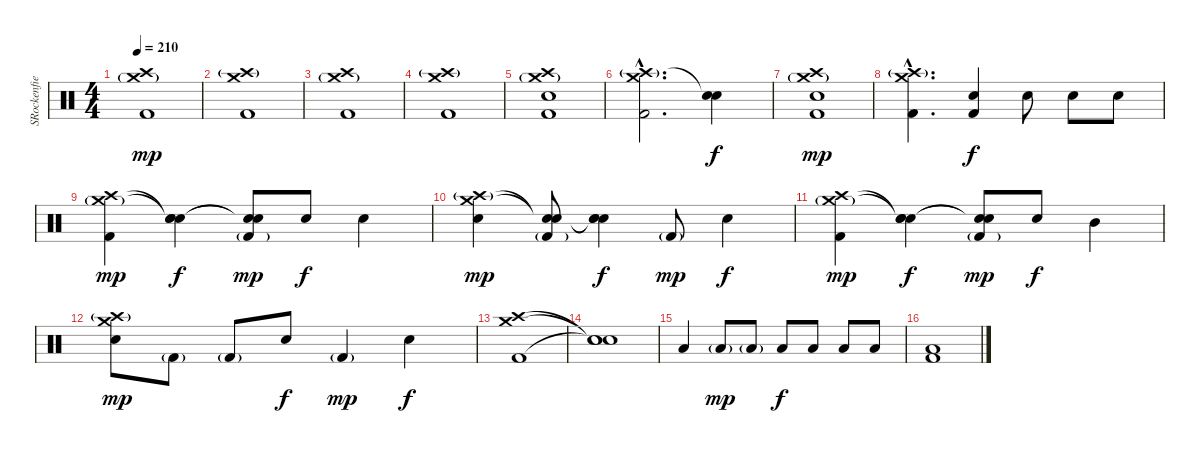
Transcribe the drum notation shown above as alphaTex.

\track ("SRockenfield" "SRockenfie") {instrument percussion}
\staff {score}
\articulation defaults
\ts (4 4)
\tempo 210
\clef neutral
\ks c
("Crash high (hit)" "Crash medium (hit)"{g} "Kick (hit) 2").1{dy mp} |
("Crash high (hit)"{g} "Crash medium (hit)" "Kick (hit) 2").1 |
("Crash high (hit)" "Crash medium (hit)"{g} "Kick (hit) 2").1 |
("Crash high (hit)"{g} "Crash medium (hit)" "Kick (hit) 2").1 |
("Crash high (hit)" "Crash medium (hit)"{g} "Electric Snare (hit)" "Kick (hit) 2").1 |
("Crash high (hit)"{g hac} "Crash medium (hit)"{hac} "Kick (hit) 2"{hac}).2{d} ("Snare (hit)"{t} "Electric Snare (hit)").4{dy f} |
("Crash high (hit)" "Crash medium (hit)"{g} "Electric Snare (hit)" "Kick (hit) 2").1{dy mp} |
("Crash high (hit)"{g hac} "Crash medium (hit)"{hac} "Kick (hit) 2"{hac}).4{d} ("Electric Snare (hit)" "Kick (hit) 2").4{dy f} "Electric Snare (hit)".8 "Electric Snare (hit)".8 "Electric Snare (hit)".8 |
("Crash high (hit)" "Crash medium (hit)"{g} "Kick (hit) 2").4{dy mp} ("Snare (hit)"{t} "Snare (hit)"{t} "Electric Snare (hit)").4{dy f} ("Snare (hit)"{t} "Snare (hit)"{t} "Kick (hit) 2"{g}).8{dy mp} "Electric Snare (hit)".8{dy f} "Electric Snare (hit)".4 |
("Crash high (hit)"{g} "Crash medium (hit)" "Electric Snare (hit)").4{dy mp} ("Snare (hit)"{t} "Snare (hit)"{t} "Kick (hit) 2"{g}).8 ("Snare (hit)"{t} "Snare (hit)"{t} "Electric Snare (hit)").4{dy f} "Kick (hit) 2"{g}.8{dy mp} "Electric Snare (hit)".4{dy f} |
("Crash high (hit)" "Crash medium (hit)"{g} "Kick (hit) 2").4{dy mp} ("Snare (hit)"{t} "Snare (hit)"{t} "Electric Snare (hit)").4{dy f} ("Snare (hit)"{t} "Snare (hit)"{t} "Kick (hit) 2"{g}).8{dy mp} "Electric Snare (hit)".8{dy f} "Mid Tom (hit)".4 |
("Crash high (hit)"{g} "Crash medium (hit)" "Electric Snare (hit)").8{dy mp} "Kick (hit) 2"{g}.8 "Kick (hit) 2"{g}.8 "Electric Snare (hit)".8{dy f} "Kick (hit) 2"{g}.4{dy mp} "Electric Snare (hit)".4{dy f} |
("Crash high (hit)" "Crash medium (hit)" "Kick (hit) 2").1 |
("Snare (hit)"{t} "Snare (hit)"{t} "Snare (hit)"{t}).1 |
"Low Floor Tom (hit)".4 "Low Floor Tom (hit)"{g}.8{dy mp} "Low Floor Tom (hit)"{g}.8 "Low Floor Tom (hit)".8{dy f} "Low Floor Tom (hit)".8 "Low Floor Tom (hit)".8 "Low Floor Tom (hit)".8 |
("Low Floor Tom (hit)" "Kick (hit) 2").1
